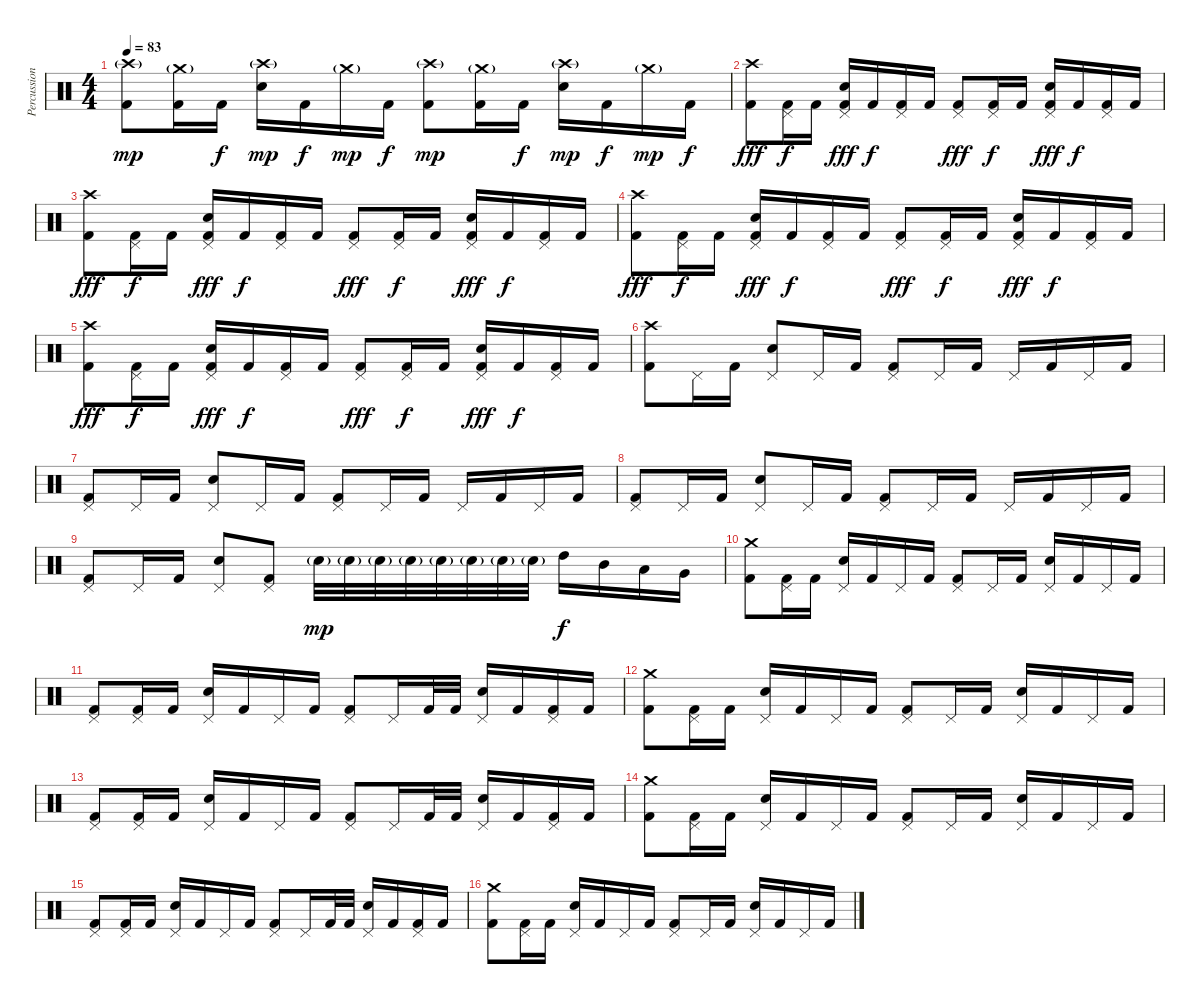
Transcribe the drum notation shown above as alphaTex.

\track ("Percussions" "Percussion") {instrument percussion}
\staff {score}
\articulation defaults
\ts (4 4)
\tempo 83
\clef neutral
\ks c
("Crash high (hit)"{g} "Kick (hit) 2").8{dy mp} ("Crash medium (hit)"{g} "Kick (hit) 2").16 "Kick (hit) 2".16{dy f} ("Crash high (hit)"{g} "Electric Snare (hit)").16{dy mp} "Kick (hit) 2".16{dy f} "Crash medium (hit)"{g}.16{dy mp} "Kick (hit) 2".16{dy f} ("Crash high (hit)"{g} "Kick (hit) 2").8{dy mp} ("Crash medium (hit)"{g} "Kick (hit) 2").16 "Kick (hit) 2".16{dy f} ("Crash high (hit)"{g} "Electric Snare (hit)").16{dy mp} "Kick (hit) 2".16{dy f} "Crash medium (hit)"{g}.16{dy mp} "Kick (hit) 2".16{dy f} |
("Crash high (hit)" "Kick (hit) 2").8{dy fff} ("Pedal Hi-Hat (hit)" "Kick (hit) 2").16{dy f} "Kick (hit) 2".16 ("Pedal Hi-Hat (hit)" "Electric Snare (hit)" "Kick (hit) 2").16{dy fff} "Kick (hit) 2".16{dy f} ("Pedal Hi-Hat (hit)" "Kick (hit) 2").16 "Kick (hit) 2".16 ("Pedal Hi-Hat (hit)" "Kick (hit) 2").8{dy fff} ("Pedal Hi-Hat (hit)" "Kick (hit) 2").16{dy f} "Kick (hit) 2".16 ("Pedal Hi-Hat (hit)" "Electric Snare (hit)" "Kick (hit) 2").16{dy fff} "Kick (hit) 2".16{dy f} ("Pedal Hi-Hat (hit)" "Kick (hit) 2").16 "Kick (hit) 2".16 |
("Crash high (hit)" "Kick (hit) 2").8{dy fff} ("Pedal Hi-Hat (hit)" "Kick (hit) 2").16{dy f} "Kick (hit) 2".16 ("Pedal Hi-Hat (hit)" "Electric Snare (hit)" "Kick (hit) 2").16{dy fff} "Kick (hit) 2".16{dy f} ("Pedal Hi-Hat (hit)" "Kick (hit) 2").16 "Kick (hit) 2".16 ("Pedal Hi-Hat (hit)" "Kick (hit) 2").8{dy fff} ("Pedal Hi-Hat (hit)" "Kick (hit) 2").16{dy f} "Kick (hit) 2".16 ("Pedal Hi-Hat (hit)" "Electric Snare (hit)" "Kick (hit) 2").16{dy fff} "Kick (hit) 2".16{dy f} ("Pedal Hi-Hat (hit)" "Kick (hit) 2").16 "Kick (hit) 2".16 |
("Crash high (hit)" "Kick (hit) 2").8{dy fff} ("Pedal Hi-Hat (hit)" "Kick (hit) 2").16{dy f} "Kick (hit) 2".16 ("Pedal Hi-Hat (hit)" "Electric Snare (hit)" "Kick (hit) 2").16{dy fff} "Kick (hit) 2".16{dy f} ("Pedal Hi-Hat (hit)" "Kick (hit) 2").16 "Kick (hit) 2".16 ("Pedal Hi-Hat (hit)" "Kick (hit) 2").8{dy fff} ("Pedal Hi-Hat (hit)" "Kick (hit) 2").16{dy f} "Kick (hit) 2".16 ("Pedal Hi-Hat (hit)" "Electric Snare (hit)" "Kick (hit) 2").16{dy fff} "Kick (hit) 2".16{dy f} ("Pedal Hi-Hat (hit)" "Kick (hit) 2").16 "Kick (hit) 2".16 |
("Crash high (hit)" "Kick (hit) 2").8{dy fff} ("Pedal Hi-Hat (hit)" "Kick (hit) 2").16{dy f} "Kick (hit) 2".16 ("Pedal Hi-Hat (hit)" "Electric Snare (hit)" "Kick (hit) 2").16{dy fff} "Kick (hit) 2".16{dy f} ("Pedal Hi-Hat (hit)" "Kick (hit) 2").16 "Kick (hit) 2".16 ("Pedal Hi-Hat (hit)" "Kick (hit) 2").8{dy fff} ("Pedal Hi-Hat (hit)" "Kick (hit) 2").16{dy f} "Kick (hit) 2".16 ("Pedal Hi-Hat (hit)" "Electric Snare (hit)" "Kick (hit) 2").16{dy fff} "Kick (hit) 2".16{dy f} ("Pedal Hi-Hat (hit)" "Kick (hit) 2").16 "Kick (hit) 2".16 |
("Crash high (hit)" "Kick (hit) 2").8 "Pedal Hi-Hat (hit)".16 "Kick (hit) 2".16 ("Pedal Hi-Hat (hit)" "Electric Snare (hit)").8 "Pedal Hi-Hat (hit)".16 "Kick (hit) 2".16 ("Pedal Hi-Hat (hit)" "Kick (hit) 2").8 "Pedal Hi-Hat (hit)".16 "Kick (hit) 2".16 "Pedal Hi-Hat (hit)".16 "Kick (hit) 2".16 "Pedal Hi-Hat (hit)".16 "Kick (hit) 2".16 |
("Pedal Hi-Hat (hit)" "Kick (hit) 2").8 "Pedal Hi-Hat (hit)".16 "Kick (hit) 2".16 ("Pedal Hi-Hat (hit)" "Electric Snare (hit)").8 "Pedal Hi-Hat (hit)".16 "Kick (hit) 2".16 ("Pedal Hi-Hat (hit)" "Kick (hit) 2").8 "Pedal Hi-Hat (hit)".16 "Kick (hit) 2".16 "Pedal Hi-Hat (hit)".16 "Kick (hit) 2".16 "Pedal Hi-Hat (hit)".16 "Kick (hit) 2".16 |
("Pedal Hi-Hat (hit)" "Kick (hit) 2").8 "Pedal Hi-Hat (hit)".16 "Kick (hit) 2".16 ("Pedal Hi-Hat (hit)" "Electric Snare (hit)").8 "Pedal Hi-Hat (hit)".16 "Kick (hit) 2".16 ("Pedal Hi-Hat (hit)" "Kick (hit) 2").8 "Pedal Hi-Hat (hit)".16 "Kick (hit) 2".16 "Pedal Hi-Hat (hit)".16 "Kick (hit) 2".16 "Pedal Hi-Hat (hit)".16 "Kick (hit) 2".16 |
("Pedal Hi-Hat (hit)" "Kick (hit) 2").8 "Pedal Hi-Hat (hit)".16 "Kick (hit) 2".16 ("Pedal Hi-Hat (hit)" "Electric Snare (hit)").8 ("Pedal Hi-Hat (hit)" "Kick (hit) 2").8 "Electric Snare (hit)"{g}.32{dy mp} "Electric Snare (hit)"{g}.32 "Electric Snare (hit)"{g}.32 "Electric Snare (hit)"{g}.32 "Electric Snare (hit)"{g}.32 "Electric Snare (hit)"{g}.32 "Electric Snare (hit)"{g}.32 "Electric Snare (hit)"{g}.32 "High Tom (hit)".16{dy f} "Mid Tom (hit)".16 "Low Tom (hit)".16 "Very Low Tom (hit)".16 |
("Crash medium (hit)" "Kick (hit) 2").8 ("Pedal Hi-Hat (hit)" "Kick (hit) 2").16 "Kick (hit) 2".16 ("Pedal Hi-Hat (hit)" "Electric Snare (hit)").16 "Kick (hit) 2".16 "Pedal Hi-Hat (hit)".16 "Kick (hit) 2".16 ("Pedal Hi-Hat (hit)" "Kick (hit) 2").8 "Pedal Hi-Hat (hit)".16 "Kick (hit) 2".16 ("Pedal Hi-Hat (hit)" "Electric Snare (hit)").16 "Kick (hit) 2".16 "Pedal Hi-Hat (hit)".16 "Kick (hit) 2".16 |
("Pedal Hi-Hat (hit)" "Kick (hit) 2").8 ("Pedal Hi-Hat (hit)" "Kick (hit) 2").16 "Kick (hit) 2".16 ("Pedal Hi-Hat (hit)" "Electric Snare (hit)").16 "Kick (hit) 2".16 "Pedal Hi-Hat (hit)".16 "Kick (hit) 2".16 ("Pedal Hi-Hat (hit)" "Kick (hit) 2").8 "Pedal Hi-Hat (hit)".16 "Kick (hit) 2".32 "Kick (hit) 2".32 ("Pedal Hi-Hat (hit)" "Electric Snare (hit)").16 "Kick (hit) 2".16 ("Pedal Hi-Hat (hit)" "Kick (hit) 2").16 "Kick (hit) 2".16 |
("Crash medium (hit)" "Kick (hit) 2").8 ("Pedal Hi-Hat (hit)" "Kick (hit) 2").16 "Kick (hit) 2".16 ("Pedal Hi-Hat (hit)" "Electric Snare (hit)").16 "Kick (hit) 2".16 "Pedal Hi-Hat (hit)".16 "Kick (hit) 2".16 ("Pedal Hi-Hat (hit)" "Kick (hit) 2").8 "Pedal Hi-Hat (hit)".16 "Kick (hit) 2".16 ("Pedal Hi-Hat (hit)" "Electric Snare (hit)").16 "Kick (hit) 2".16 "Pedal Hi-Hat (hit)".16 "Kick (hit) 2".16 |
("Pedal Hi-Hat (hit)" "Kick (hit) 2").8 ("Pedal Hi-Hat (hit)" "Kick (hit) 2").16 "Kick (hit) 2".16 ("Pedal Hi-Hat (hit)" "Electric Snare (hit)").16 "Kick (hit) 2".16 "Pedal Hi-Hat (hit)".16 "Kick (hit) 2".16 ("Pedal Hi-Hat (hit)" "Kick (hit) 2").8 "Pedal Hi-Hat (hit)".16 "Kick (hit) 2".32 "Kick (hit) 2".32 ("Pedal Hi-Hat (hit)" "Electric Snare (hit)").16 "Kick (hit) 2".16 ("Pedal Hi-Hat (hit)" "Kick (hit) 2").16 "Kick (hit) 2".16 |
("Crash medium (hit)" "Kick (hit) 2").8 ("Pedal Hi-Hat (hit)" "Kick (hit) 2").16 "Kick (hit) 2".16 ("Pedal Hi-Hat (hit)" "Electric Snare (hit)").16 "Kick (hit) 2".16 "Pedal Hi-Hat (hit)".16 "Kick (hit) 2".16 ("Pedal Hi-Hat (hit)" "Kick (hit) 2").8 "Pedal Hi-Hat (hit)".16 "Kick (hit) 2".16 ("Pedal Hi-Hat (hit)" "Electric Snare (hit)").16 "Kick (hit) 2".16 "Pedal Hi-Hat (hit)".16 "Kick (hit) 2".16 |
("Pedal Hi-Hat (hit)" "Kick (hit) 2").8 ("Pedal Hi-Hat (hit)" "Kick (hit) 2").16 "Kick (hit) 2".16 ("Pedal Hi-Hat (hit)" "Electric Snare (hit)").16 "Kick (hit) 2".16 "Pedal Hi-Hat (hit)".16 "Kick (hit) 2".16 ("Pedal Hi-Hat (hit)" "Kick (hit) 2").8 "Pedal Hi-Hat (hit)".16 "Kick (hit) 2".32 "Kick (hit) 2".32 ("Pedal Hi-Hat (hit)" "Electric Snare (hit)").16 "Kick (hit) 2".16 ("Pedal Hi-Hat (hit)" "Kick (hit) 2").16 "Kick (hit) 2".16 |
("Crash medium (hit)" "Kick (hit) 2").8 ("Pedal Hi-Hat (hit)" "Kick (hit) 2").16 "Kick (hit) 2".16 ("Pedal Hi-Hat (hit)" "Electric Snare (hit)").16 "Kick (hit) 2".16 "Pedal Hi-Hat (hit)".16 "Kick (hit) 2".16 ("Pedal Hi-Hat (hit)" "Kick (hit) 2").8 "Pedal Hi-Hat (hit)".16 "Kick (hit) 2".16 ("Pedal Hi-Hat (hit)" "Electric Snare (hit)").16 "Kick (hit) 2".16 "Pedal Hi-Hat (hit)".16 "Kick (hit) 2".16
